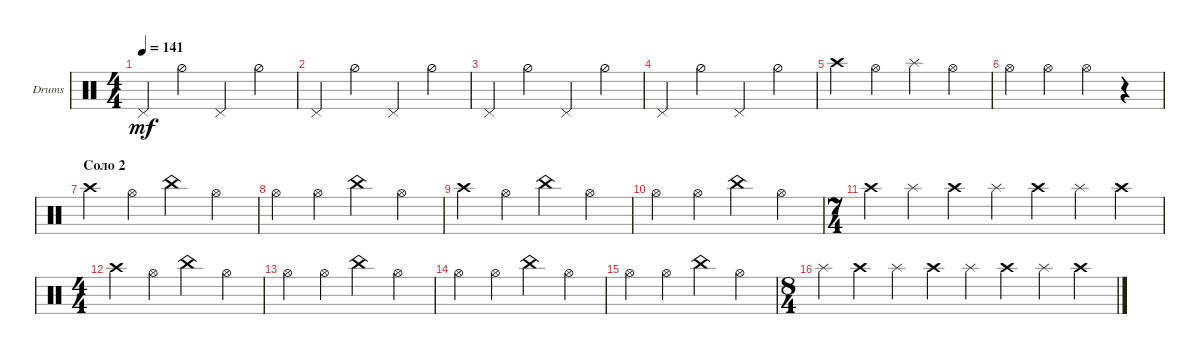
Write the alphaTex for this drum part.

\defaultSystemsLayout 4
\bracketExtendMode groupsimilarinstruments
\firstSystemTrackNameOrientation horizontal
\otherSystemsTrackNameOrientation horizontal
\track ("Cymbol" "Drums") {instrument percussion}
\staff {score}
\articulation defaults
\ts (4 4)
\tempo 141
\clef neutral
\scale
0.333333
\ks c "Pedal Hi-Hat (hit)".4{dy mf} "Hi-Hat (half)".4 "Pedal Hi-Hat (hit)".4 "Hi-Hat (half)".4
|
\scale
0.333333 "Pedal Hi-Hat (hit)".4 "Hi-Hat (half)".4 "Pedal Hi-Hat (hit)".4 "Hi-Hat (half)".4 |
\scale
0.333333 "Pedal Hi-Hat (hit)".4 "Hi-Hat (half)".4 "Pedal Hi-Hat (hit)".4 "Hi-Hat (half)".4 |
\scale
0.333333 "Pedal Hi-Hat (hit)".4 "Hi-Hat (half)".4 "Pedal Hi-Hat (hit)".4 "Hi-Hat (half)".4 |
\scale
0.333333 "Crash high (hit)".4 "Hi-Hat (open)".4 "Splash (hit)".4 "Hi-Hat (open)".4 |
\scale
0.333333 "Hi-Hat (open)".4 "Hi-Hat (open)".4 "Hi-Hat (open)".4 r.4 |
\section ("" "Соло 2")
\scale
0.333333 "Crash high (hit)".4 "Hi-Hat (open)".4 "China (hit)".4 "Hi-Hat (open)".4 |
\scale
0.333333 "Hi-Hat (open)".4 "Hi-Hat (open)".4 "China (hit)".4 "Hi-Hat (open)".4 |
\scale
0.333333 "Crash high (hit)".4 "Hi-Hat (open)".4 "China (hit)".4 "Hi-Hat (open)".4 |
\scale
0.333333 "Hi-Hat (open)".4 "Hi-Hat (open)".4 "China (hit)".4 "Hi-Hat (open)".4 |
\ts (7 4)
\scale
0.390805 "Crash high (hit)".4 "Splash (hit)".4 "Crash high (hit)".4 "Splash (hit)".4 "Crash high (hit)".4 "Splash (hit)".4 "Crash high (hit)".4 |
\ts (4 4)
\scale
0.390805 "Crash high (hit)".4 "Hi-Hat (open)".4 "China (hit)".4 "Hi-Hat (open)".4 |
\scale
0.218391 "Hi-Hat (open)".4 "Hi-Hat (open)".4 "China (hit)".4 "Hi-Hat (open)".4 |
\scale
0.263889 "Hi-Hat (open)".4 "Hi-Hat (open)".4 "China (hit)".4 "Hi-Hat (open)".4 |
\scale
0.263889 "Hi-Hat (open)".4 "Hi-Hat (open)".4 "China (hit)".4 "Hi-Hat (open)".4 |
\ts (8 4)
\scale
0.472222 "Splash (hit)".4 "Crash high (hit)".4 "Splash (hit)".4 "Crash high (hit)".4 "Splash (hit)".4 "Crash high (hit)".4 "Splash (hit)".4 "Crash high (hit)".4
